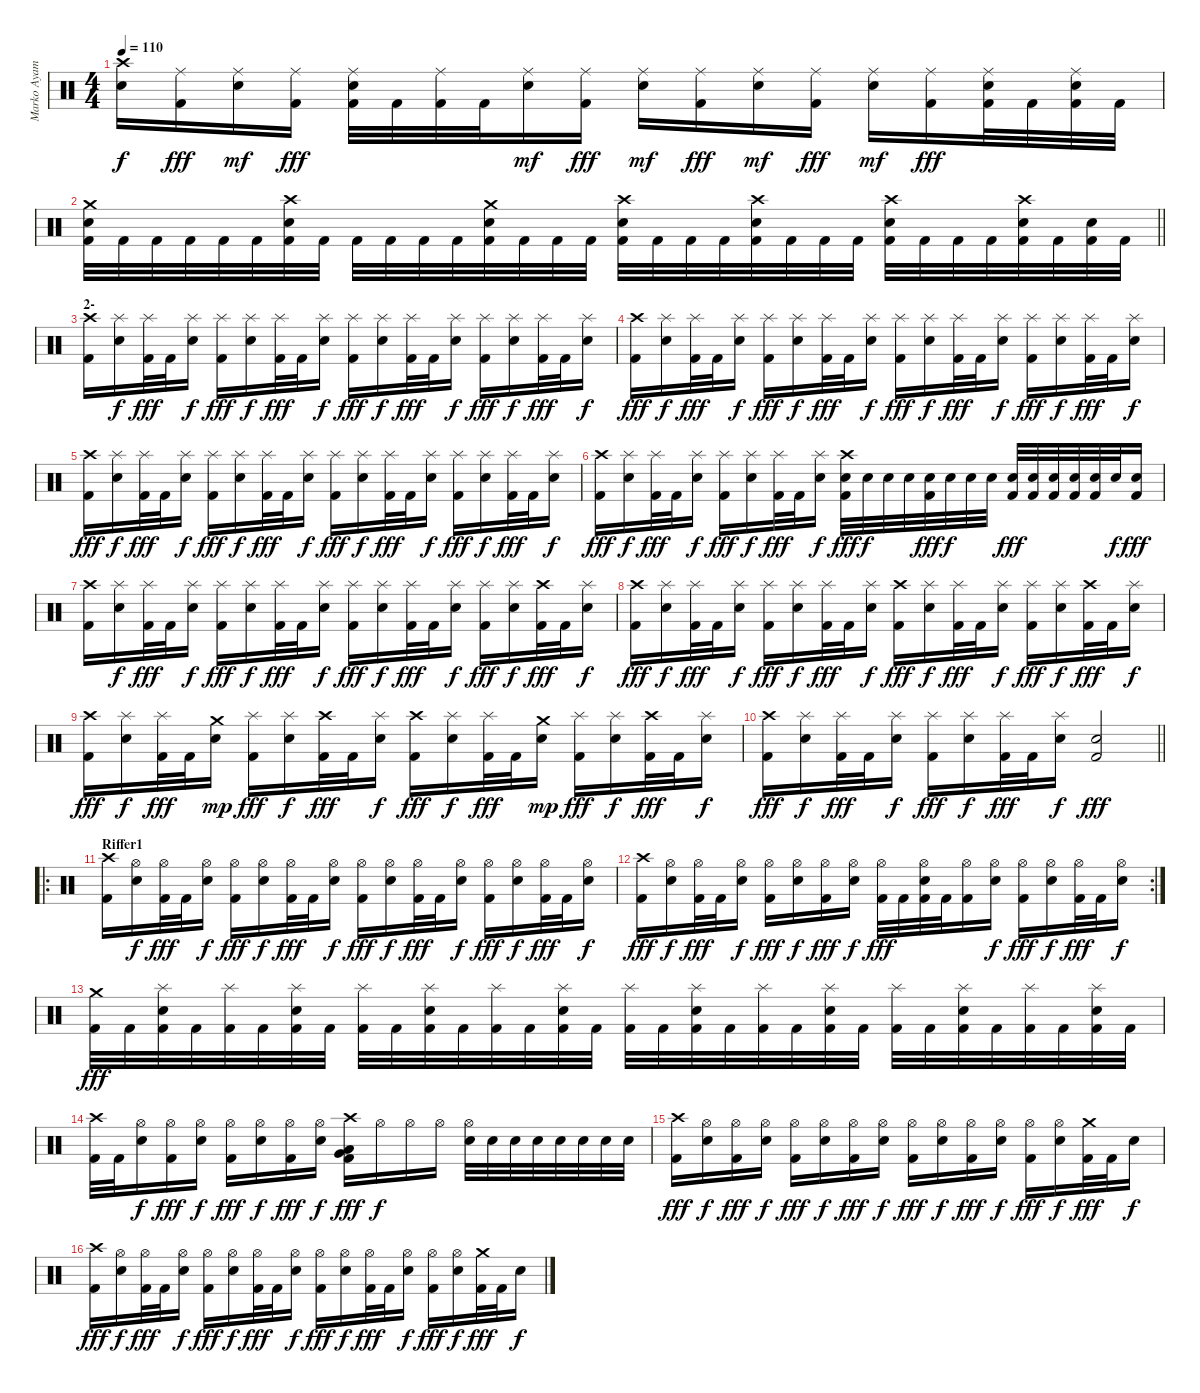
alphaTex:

\track ("Marko Ayamani" "Marko Ayam") {instrument percussion}
\staff {score}
\articulation defaults
\ts (4 4)
\tempo 110
\clef neutral
\ks c
("Crash high (hit)" "Snare (hit) 2").16{dy f} ("Ride (middle)" "Kick (hit) 2").16{dy fff} ("Ride (middle)" "Snare (hit) 2").16{dy mf} ("Ride (middle)" "Kick (hit) 2").16{dy fff} ("Ride (middle)" "Snare (hit) 2" "Kick (hit) 2").32 "Kick (hit) 2".32 ("Ride (middle)" "Kick (hit) 2").32 "Kick (hit) 2".32 ("Ride (middle)" "Snare (hit) 2").16{dy mf} ("Ride (middle)" "Kick (hit) 2").16{dy fff} ("Ride (middle)" "Snare (hit) 2").16{dy mf} ("Ride (middle)" "Kick (hit) 2").16{dy fff} ("Ride (middle)" "Snare (hit) 2").16{dy mf} ("Ride (middle)" "Kick (hit) 2").16{dy fff} ("Ride (middle)" "Snare (hit) 2").16{dy mf} ("Ride (middle)" "Kick (hit) 2").16{dy fff} ("Ride (middle)" "Snare (hit) 2" "Kick (hit) 2").32 "Kick (hit) 2".32 ("Ride (middle)" "Snare (hit) 2" "Kick (hit) 2").32 "Kick (hit) 2".32 |
\barLineRight lightlight
("Crash medium (hit)" "Snare (hit) 2" "Kick (hit) 2").32 "Kick (hit) 2".32 "Kick (hit) 2".32 "Kick (hit) 2".32 "Kick (hit) 2".32 "Kick (hit) 2".32 ("Crash high (hit)" "Snare (hit) 2" "Kick (hit) 2").32 "Kick (hit) 2".32 "Kick (hit) 2".32 "Kick (hit) 2".32 "Kick (hit) 2".32 "Kick (hit) 2".32 ("Crash medium (hit)" "Snare (hit) 2" "Kick (hit) 2").32 "Kick (hit) 2".32 "Kick (hit) 2".32 "Kick (hit) 2".32 ("Crash high (hit)" "Snare (hit) 2" "Kick (hit) 2").32 "Kick (hit) 2".32 "Kick (hit) 2".32 "Kick (hit) 2".32 ("Crash high (hit)" "Snare (hit) 2" "Kick (hit) 2").32 "Kick (hit) 2".32 "Kick (hit) 2".32 "Kick (hit) 2".32 ("Crash high (hit)" "Snare (hit) 2" "Kick (hit) 2").32 "Kick (hit) 2".32 "Kick (hit) 2".32 "Kick (hit) 2".32 ("Crash high (hit)" "Snare (hit) 2" "Kick (hit) 2").32 "Kick (hit) 2".32 ("Snare (hit) 2" "Kick (hit) 2").32 "Kick (hit) 2".32 |
\section ("" "2-")
("Crash high (hit)" "Kick (hit) 2").16 ("Splash (hit)" "Snare (hit) 2").16{dy f} ("Splash (hit)" "Kick (hit) 2").32{dy fff} "Kick (hit) 2".32 ("Splash (hit)" "Snare (hit) 2").16{dy f} ("Splash (hit)" "Kick (hit) 2").16{dy fff} ("Splash (hit)" "Snare (hit) 2").16{dy f} ("Splash (hit)" "Kick (hit) 2").32{dy fff} "Kick (hit) 2".32 ("Splash (hit)" "Snare (hit) 2").16{dy f} ("Splash (hit)" "Kick (hit) 2").16{dy fff} ("Splash (hit)" "Snare (hit) 2").16{dy f} ("Splash (hit)" "Kick (hit) 2").32{dy fff} "Kick (hit) 2".32 ("Splash (hit)" "Snare (hit) 2").16{dy f} ("Splash (hit)" "Kick (hit) 2").16{dy fff} ("Splash (hit)" "Snare (hit) 2").16{dy f} ("Splash (hit)" "Kick (hit) 2").32{dy fff} "Kick (hit) 2".32 ("Splash (hit)" "Snare (hit) 2").16{dy f} |
("Crash high (hit)" "Kick (hit) 2").16{dy fff} ("Splash (hit)" "Snare (hit) 2").16{dy f} ("Splash (hit)" "Kick (hit) 2").32{dy fff} "Kick (hit) 2".32 ("Splash (hit)" "Snare (hit) 2").16{dy f} ("Splash (hit)" "Kick (hit) 2").16{dy fff} ("Splash (hit)" "Snare (hit) 2").16{dy f} ("Splash (hit)" "Kick (hit) 2").32{dy fff} "Kick (hit) 2".32 ("Splash (hit)" "Snare (hit) 2").16{dy f} ("Splash (hit)" "Kick (hit) 2").16{dy fff} ("Splash (hit)" "Snare (hit) 2").16{dy f} ("Splash (hit)" "Kick (hit) 2").32{dy fff} "Kick (hit) 2".32 ("Splash (hit)" "Snare (hit) 2").16{dy f} ("Splash (hit)" "Kick (hit) 2").16{dy fff} ("Splash (hit)" "Snare (hit) 2").16{dy f} ("Splash (hit)" "Kick (hit) 2").32{dy fff} "Kick (hit) 2".32 ("Splash (hit)" "Snare (hit) 2").16{dy f} |
("Crash high (hit)" "Kick (hit) 2").16{dy fff} ("Splash (hit)" "Snare (hit) 2").16{dy f} ("Splash (hit)" "Kick (hit) 2").32{dy fff} "Kick (hit) 2".32 ("Splash (hit)" "Snare (hit) 2").16{dy f} ("Splash (hit)" "Kick (hit) 2").16{dy fff} ("Splash (hit)" "Snare (hit) 2").16{dy f} ("Splash (hit)" "Kick (hit) 2").32{dy fff} "Kick (hit) 2".32 ("Splash (hit)" "Snare (hit) 2").16{dy f} ("Splash (hit)" "Kick (hit) 2").16{dy fff} ("Splash (hit)" "Snare (hit) 2").16{dy f} ("Splash (hit)" "Kick (hit) 2").32{dy fff} "Kick (hit) 2".32 ("Splash (hit)" "Snare (hit) 2").16{dy f} ("Splash (hit)" "Kick (hit) 2").16{dy fff} ("Splash (hit)" "Snare (hit) 2").16{dy f} ("Splash (hit)" "Kick (hit) 2").32{dy fff} "Kick (hit) 2".32 ("Splash (hit)" "Snare (hit) 2").16{dy f} |
("Crash high (hit)" "Kick (hit) 2").16{dy fff} ("Splash (hit)" "Snare (hit) 2").16{dy f} ("Splash (hit)" "Kick (hit) 2").32{dy fff} "Kick (hit) 2".32 ("Splash (hit)" "Snare (hit) 2").16{dy f} ("Splash (hit)" "Kick (hit) 2").16{dy fff} ("Splash (hit)" "Snare (hit) 2").16{dy f} ("Splash (hit)" "Kick (hit) 2").32{dy fff} "Kick (hit) 2".32 ("Splash (hit)" "Snare (hit) 2").16{dy f} ("Crash high (hit)" "Snare (hit) 2" "Kick (hit) 2").32{dy fff} "Snare (hit) 2".32{dy f} "Snare (hit) 2".32 "Snare (hit) 2".32 ("Snare (hit) 2" "Kick (hit) 2").32{dy fff} "Snare (hit) 2".32{dy f} "Snare (hit) 2".32 "Snare (hit) 2".32 ("Snare (hit) 2" "Kick (hit) 2").32{dy fff} ("Snare (hit) 2" "Kick (hit) 2").32 ("Snare (hit) 2" "Kick (hit) 2").32 ("Snare (hit) 2" "Kick (hit) 2").32 ("Snare (hit) 2" "Kick (hit) 2").32 "Snare (hit) 2".32{dy f} ("Snare (hit) 2" "Kick (hit) 2").16{dy fff} |
("Crash high (hit)" "Kick (hit) 2").16 ("Splash (hit)" "Snare (hit) 2").16{dy f} ("Splash (hit)" "Kick (hit) 2").32{dy fff} "Kick (hit) 2".32 ("Splash (hit)" "Snare (hit) 2").16{dy f} ("Splash (hit)" "Kick (hit) 2").16{dy fff} ("Splash (hit)" "Snare (hit) 2").16{dy f} ("Splash (hit)" "Kick (hit) 2").32{dy fff} "Kick (hit) 2".32 ("Splash (hit)" "Snare (hit) 2").16{dy f} ("Splash (hit)" "Kick (hit) 2").16{dy fff} ("Splash (hit)" "Snare (hit) 2").16{dy f} ("Splash (hit)" "Kick (hit) 2").32{dy fff} "Kick (hit) 2".32 ("Splash (hit)" "Snare (hit) 2").16{dy f} ("Splash (hit)" "Kick (hit) 2").16{dy fff} ("Splash (hit)" "Snare (hit) 2").16{dy f} ("Crash high (hit)" "Kick (hit) 2").32{dy fff} "Kick (hit) 2".32 ("Splash (hit)" "Snare (hit) 2").16{dy f} |
("Crash high (hit)" "Kick (hit) 2").16{dy fff} ("Splash (hit)" "Snare (hit) 2").16{dy f} ("Splash (hit)" "Kick (hit) 2").32{dy fff} "Kick (hit) 2".32 ("Splash (hit)" "Snare (hit) 2").16{dy f} ("Splash (hit)" "Kick (hit) 2").16{dy fff} ("Splash (hit)" "Snare (hit) 2").16{dy f} ("Splash (hit)" "Kick (hit) 2").32{dy fff} "Kick (hit) 2".32 ("Splash (hit)" "Snare (hit) 2").16{dy f} ("Crash high (hit)" "Kick (hit) 2").16{dy fff} ("Splash (hit)" "Snare (hit) 2").16{dy f} ("Splash (hit)" "Kick (hit) 2").32{dy fff} "Kick (hit) 2".32 ("Splash (hit)" "Snare (hit) 2").16{dy f} ("Splash (hit)" "Kick (hit) 2").16{dy fff} ("Splash (hit)" "Snare (hit) 2").16{dy f} ("Crash high (hit)" "Kick (hit) 2").32{dy fff} "Kick (hit) 2".32 ("Splash (hit)" "Snare (hit) 2").16{dy f} |
("Crash high (hit)" "Kick (hit) 2").16{dy fff} ("Splash (hit)" "Snare (hit) 2").16{dy f} ("Splash (hit)" "Kick (hit) 2").32{dy fff} "Kick (hit) 2".32 ("Crash medium (hit)" "Snare (hit) 2").16{dy mp} ("Splash (hit)" "Kick (hit) 2").16{dy fff} ("Splash (hit)" "Snare (hit) 2").16{dy f} ("Crash high (hit)" "Kick (hit) 2").32{dy fff} "Kick (hit) 2".32 ("Splash (hit)" "Snare (hit) 2").16{dy f} ("Crash high (hit)" "Kick (hit) 2").16{dy fff} ("Splash (hit)" "Snare (hit) 2").16{dy f} ("Splash (hit)" "Kick (hit) 2").32{dy fff} "Kick (hit) 2".32 ("Crash medium (hit)" "Snare (hit) 2").16{dy mp} ("Splash (hit)" "Kick (hit) 2").16{dy fff} ("Splash (hit)" "Snare (hit) 2").16{dy f} ("Crash high (hit)" "Kick (hit) 2").32{dy fff} "Kick (hit) 2".32 ("Splash (hit)" "Snare (hit) 2").16{dy f} |
\barLineRight lightlight
("Crash high (hit)" "Kick (hit) 2").16{dy fff} ("Splash (hit)" "Snare (hit) 2").16{dy f} ("Splash (hit)" "Kick (hit) 2").32{dy fff} "Kick (hit) 2".32 ("Splash (hit)" "Snare (hit) 2").16{dy f} ("Splash (hit)" "Kick (hit) 2").16{dy fff} ("Splash (hit)" "Snare (hit) 2").16{dy f} ("Splash (hit)" "Kick (hit) 2").32{dy fff} "Kick (hit) 2".32 ("Splash (hit)" "Snare (hit) 2").16{dy f} ("Snare (hit) 2" "Kick (hit) 2").2{dy fff} |
\ro
\section ("" "Riffer1")
("Crash high (hit)" "Kick (hit) 2").16 ("Hi-Hat (open)" "Snare (hit) 2").16{dy f} ("Hi-Hat (open)" "Kick (hit) 2").32{dy fff} "Kick (hit) 2".32 ("Hi-Hat (open)" "Snare (hit) 2").16{dy f} ("Hi-Hat (open)" "Kick (hit) 2").16{dy fff} ("Hi-Hat (open)" "Snare (hit) 2").16{dy f} ("Hi-Hat (open)" "Kick (hit) 2").32{dy fff} "Kick (hit) 2".32 ("Hi-Hat (open)" "Snare (hit) 2").16{dy f} ("Hi-Hat (open)" "Kick (hit) 2").16{dy fff} ("Hi-Hat (open)" "Snare (hit) 2").16{dy f} ("Hi-Hat (open)" "Kick (hit) 2").32{dy fff} "Kick (hit) 2".32 ("Hi-Hat (open)" "Snare (hit) 2").16{dy f} ("Hi-Hat (open)" "Kick (hit) 2").16{dy fff} ("Hi-Hat (open)" "Snare (hit) 2").16{dy f} ("Hi-Hat (open)" "Kick (hit) 2").32{dy fff} "Kick (hit) 2".32 ("Hi-Hat (open)" "Snare (hit) 2").16{dy f} |
\rc 2
("Crash high (hit)" "Kick (hit) 2").16{dy fff} ("Hi-Hat (open)" "Snare (hit) 2").16{dy f} ("Hi-Hat (open)" "Kick (hit) 2").32{dy fff} "Kick (hit) 2".32 ("Hi-Hat (open)" "Snare (hit) 2").16{dy f} ("Hi-Hat (open)" "Kick (hit) 2").16{dy fff} ("Hi-Hat (open)" "Snare (hit) 2").16{dy f} ("Hi-Hat (open)" "Kick (hit) 2").16{dy fff} ("Hi-Hat (open)" "Snare (hit) 2").16{dy f} ("Hi-Hat (open)" "Kick (hit) 2").32{dy fff} "Kick (hit) 2".32 ("Hi-Hat (open)" "Snare (hit) 2" "Kick (hit) 2").32 "Kick (hit) 2".32 ("Hi-Hat (open)" "Kick (hit) 2").16 ("Hi-Hat (open)" "Snare (hit) 2").16{dy f} ("Hi-Hat (open)" "Kick (hit) 2").16{dy fff} ("Hi-Hat (open)" "Snare (hit) 2").16{dy f} ("Hi-Hat (open)" "Kick (hit) 2").32{dy fff} "Kick (hit) 2".32 ("Hi-Hat (open)" "Snare (hit) 2").16{dy f} |
("Crash medium (hit)" "Kick (hit) 2").32{dy fff} "Kick (hit) 2".32 ("Splash (hit)" "Snare (hit) 2" "Kick (hit) 2").32 "Kick (hit) 2".32 ("Splash (hit)" "Kick (hit) 2").32 "Kick (hit) 2".32 ("Splash (hit)" "Snare (hit) 2" "Kick (hit) 2").32 "Kick (hit) 2".32 ("Splash (hit)" "Kick (hit) 2").32 "Kick (hit) 2".32 ("Splash (hit)" "Snare (hit) 2" "Kick (hit) 2").32 "Kick (hit) 2".32 ("Splash (hit)" "Kick (hit) 2").32 "Kick (hit) 2".32 ("Splash (hit)" "Snare (hit) 2" "Kick (hit) 2").32 "Kick (hit) 2".32 ("Splash (hit)" "Kick (hit) 2").32 "Kick (hit) 2".32 ("Splash (hit)" "Snare (hit) 2" "Kick (hit) 2").32 "Kick (hit) 2".32 ("Splash (hit)" "Kick (hit) 2").32 "Kick (hit) 2".32 ("Splash (hit)" "Snare (hit) 2" "Kick (hit) 2").32 "Kick (hit) 2".32 ("Splash (hit)" "Kick (hit) 2").32 "Kick (hit) 2".32 ("Splash (hit)" "Snare (hit) 2" "Kick (hit) 2").32 "Kick (hit) 2".32 ("Splash (hit)" "Kick (hit) 2").32 "Kick (hit) 2".32 ("Splash (hit)" "Snare (hit) 2" "Kick (hit) 2").32 "Kick (hit) 2".32 |
("Crash high (hit)" "Kick (hit) 2").32 "Kick (hit) 2".32 ("Hi-Hat (open)" "Snare (hit) 2").16{dy f} ("Hi-Hat (open)" "Kick (hit) 2").16{dy fff} ("Hi-Hat (open)" "Snare (hit) 2").16{dy f} ("Hi-Hat (open)" "Kick (hit) 2").16{dy fff} ("Hi-Hat (open)" "Snare (hit) 2").16{dy f} ("Hi-Hat (open)" "Kick (hit) 2").16{dy fff} ("Hi-Hat (open)" "Snare (hit) 2").16{dy f} ("Crash high (hit)" "Very Low Tom (hit)" "Low Tom (hit)" "Kick (hit) 2").16{dy fff} "Hi-Hat (open)".16{dy f} "Hi-Hat (open)".16 "Hi-Hat (open)".16 ("Hi-Hat (open)" "Snare (hit) 2").32 "Snare (hit) 2".32 "Snare (hit) 2".32 "Snare (hit) 2".32 "Snare (hit) 2".32 "Snare (hit) 2".32 "Snare (hit) 2".32 "Snare (hit) 2".32 |
("Crash high (hit)" "Kick (hit) 2").16{dy fff} ("Hi-Hat (open)" "Snare (hit) 2").16{dy f} ("Hi-Hat (open)" "Kick (hit) 2").16{dy fff} ("Hi-Hat (open)" "Snare (hit) 2").16{dy f} ("Hi-Hat (open)" "Kick (hit) 2").16{dy fff} ("Hi-Hat (open)" "Snare (hit) 2").16{dy f} ("Hi-Hat (open)" "Kick (hit) 2").16{dy fff} ("Hi-Hat (open)" "Snare (hit) 2").16{dy f} ("Hi-Hat (open)" "Kick (hit) 2").16{dy fff} ("Hi-Hat (open)" "Snare (hit) 2").16{dy f} ("Hi-Hat (open)" "Kick (hit) 2").16{dy fff} ("Hi-Hat (open)" "Snare (hit) 2").16{dy f} ("Hi-Hat (open)" "Kick (hit) 2").16{dy fff} ("Hi-Hat (open)" "Snare (hit) 2").16{dy f} ("Crash medium (hit)" "Kick (hit) 2").32{dy fff} "Kick (hit) 2".32 "Snare (hit) 2".16{dy f} |
("Crash high (hit)" "Kick (hit) 2").16{dy fff} ("Hi-Hat (open)" "Snare (hit) 2").16{dy f} ("Hi-Hat (open)" "Kick (hit) 2").32{dy fff} "Kick (hit) 2".32 ("Hi-Hat (open)" "Snare (hit) 2").16{dy f} ("Hi-Hat (open)" "Kick (hit) 2").16{dy fff} ("Hi-Hat (open)" "Snare (hit) 2").16{dy f} ("Hi-Hat (open)" "Kick (hit) 2").32{dy fff} "Kick (hit) 2".32 ("Hi-Hat (open)" "Snare (hit) 2").16{dy f} ("Hi-Hat (open)" "Kick (hit) 2").16{dy fff} ("Hi-Hat (open)" "Snare (hit) 2").16{dy f} ("Hi-Hat (open)" "Kick (hit) 2").32{dy fff} "Kick (hit) 2".32 ("Hi-Hat (open)" "Snare (hit) 2").16{dy f} ("Hi-Hat (open)" "Kick (hit) 2").16{dy fff} ("Hi-Hat (open)" "Snare (hit) 2").16{dy f} ("Crash medium (hit)" "Kick (hit) 2").32{dy fff} "Kick (hit) 2".32 "Snare (hit) 2".16{dy f}
